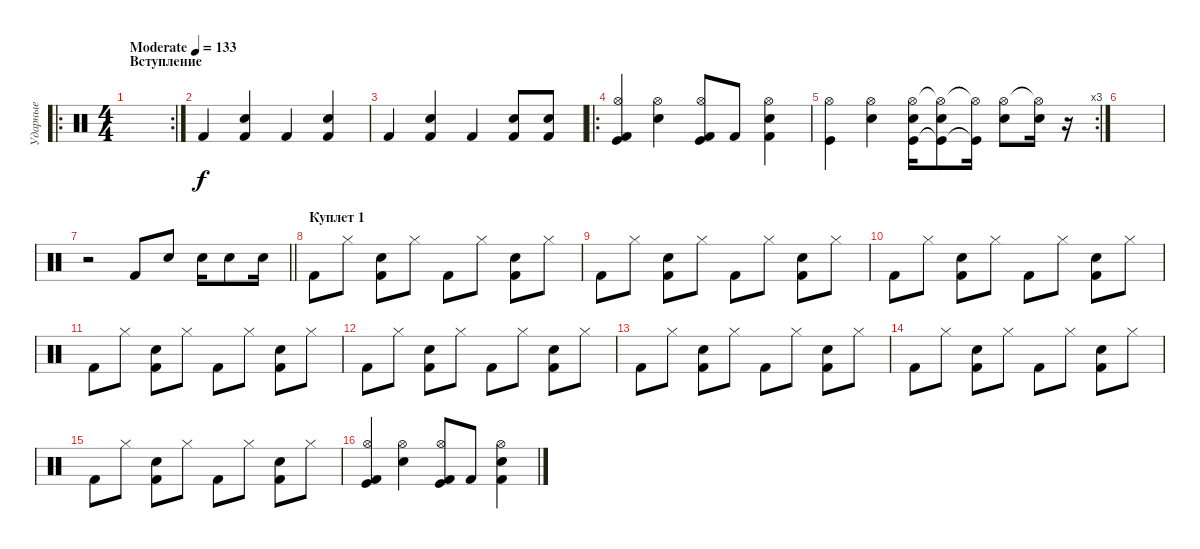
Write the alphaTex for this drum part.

\track ("Ударные" "Ударные") {instrument percussion}
\staff {score}
\articulation defaults
\ro
\rc 2
\ts (4 4)
\section ("" "Вступление")
\tempo (133 "Moderate")
\clef neutral
\ks c
|
"Kick (hit) 2".4 ("Snare (hit) 2" "Kick (hit) 2").4 "Kick (hit) 2".4 ("Kick (hit) 2" "Snare (hit) 2").4 |
"Kick (hit) 2".4 ("Snare (hit) 2" "Kick (hit) 2").4 "Kick (hit) 2".4 ("Kick (hit) 2" "Snare (hit) 2").8 ("Kick (hit) 2" "Snare (hit) 2").8 |
\ro
("Hi-Hat (open)" "Kick (hit) 2" "Kick (hit)").4 ("Hi-Hat (open)" "Snare (hit) 2").4 ("Hi-Hat (open)" "Kick (hit) 2" "Kick (hit)").8 "Kick (hit) 2".8 ("Hi-Hat (open)" "Kick (hit) 2" "Snare (hit) 2").4 |
\rc 3
("Hi-Hat (open)" "Kick (hit)").4 ("Hi-Hat (open)" "Snare (hit) 2").4 ("Hi-Hat (open)" "Kick (hit)" "Snare (hit) 2").16 ("Hi-Hat (open)"{t} "Kick (hit)"{t} "Snare (hit) 2").8 ("Hi-Hat (open)"{t} "Kick (hit)"{t}).16 ("Hi-Hat (open)" "Snare (hit) 2").8 ("Hi-Hat (open)"{t} "Snare (hit) 2").16 r.16 |
|
\barLineRight lightlight
r.2 "Kick (hit) 2".8 "Snare (hit) 2".8 "Snare (hit) 2".16 "Snare (hit) 2".8 "Snare (hit) 2".16 |
\section ("" "Куплет 1")
"Kick (hit) 2".8 "Hi-Hat (closed)".8 ("Kick (hit) 2" "Snare (hit) 2").8 "Hi-Hat (closed)".8 "Kick (hit) 2".8 "Hi-Hat (closed)".8 ("Kick (hit) 2" "Snare (hit) 2").8 "Hi-Hat (closed)".8 |
"Kick (hit) 2".8 "Hi-Hat (closed)".8 ("Kick (hit) 2" "Snare (hit) 2").8 "Hi-Hat (closed)".8 "Kick (hit) 2".8 "Hi-Hat (closed)".8 ("Kick (hit) 2" "Snare (hit) 2").8 "Hi-Hat (closed)".8 |
"Kick (hit) 2".8 "Hi-Hat (closed)".8 ("Kick (hit) 2" "Snare (hit) 2").8 "Hi-Hat (closed)".8 "Kick (hit) 2".8 "Hi-Hat (closed)".8 ("Kick (hit) 2" "Snare (hit) 2").8 "Hi-Hat (closed)".8 |
"Kick (hit) 2".8 "Hi-Hat (closed)".8 ("Kick (hit) 2" "Snare (hit) 2").8 "Hi-Hat (closed)".8 "Kick (hit) 2".8 "Hi-Hat (closed)".8 ("Kick (hit) 2" "Snare (hit) 2").8 "Hi-Hat (closed)".8 |
"Kick (hit) 2".8 "Hi-Hat (closed)".8 ("Kick (hit) 2" "Snare (hit) 2").8 "Hi-Hat (closed)".8 "Kick (hit) 2".8 "Hi-Hat (closed)".8 ("Kick (hit) 2" "Snare (hit) 2").8 "Hi-Hat (closed)".8 |
"Kick (hit) 2".8 "Hi-Hat (closed)".8 ("Kick (hit) 2" "Snare (hit) 2").8 "Hi-Hat (closed)".8 "Kick (hit) 2".8 "Hi-Hat (closed)".8 ("Kick (hit) 2" "Snare (hit) 2").8 "Hi-Hat (closed)".8 |
"Kick (hit) 2".8 "Hi-Hat (closed)".8 ("Kick (hit) 2" "Snare (hit) 2").8 "Hi-Hat (closed)".8 "Kick (hit) 2".8 "Hi-Hat (closed)".8 ("Kick (hit) 2" "Snare (hit) 2").8 "Hi-Hat (closed)".8 |
"Kick (hit) 2".8 "Hi-Hat (closed)".8 ("Kick (hit) 2" "Snare (hit) 2").8 "Hi-Hat (closed)".8 "Kick (hit) 2".8 "Hi-Hat (closed)".8 ("Kick (hit) 2" "Snare (hit) 2").8 "Hi-Hat (closed)".8 |
("Hi-Hat (open)" "Kick (hit) 2" "Kick (hit)").4 ("Hi-Hat (open)" "Snare (hit) 2").4 ("Hi-Hat (open)" "Kick (hit) 2" "Kick (hit)").8 "Kick (hit) 2".8 ("Hi-Hat (open)" "Kick (hit) 2" "Snare (hit) 2").4
